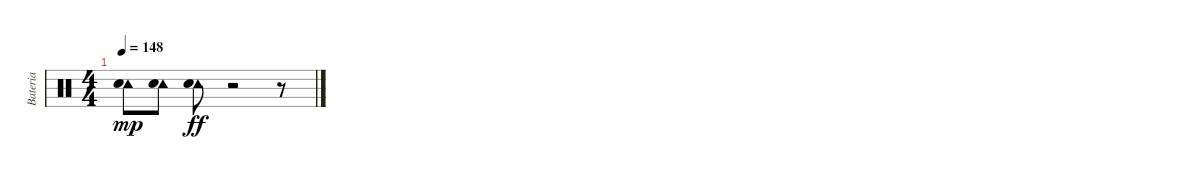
\track ("Bateria" "Bateria") {instrument percussion}
\staff {score}
\articulation defaults
\ts (4 4)
\tempo 148
\clef neutral
\ks c
("Tambourine (hit)" "Snare (hit) 2").8{dy mp} ("Tambourine (hit)" "Snare (hit) 2").8 ("Tambourine (hit)" "Snare (hit) 2").8{dy ff} r.2 r.8
